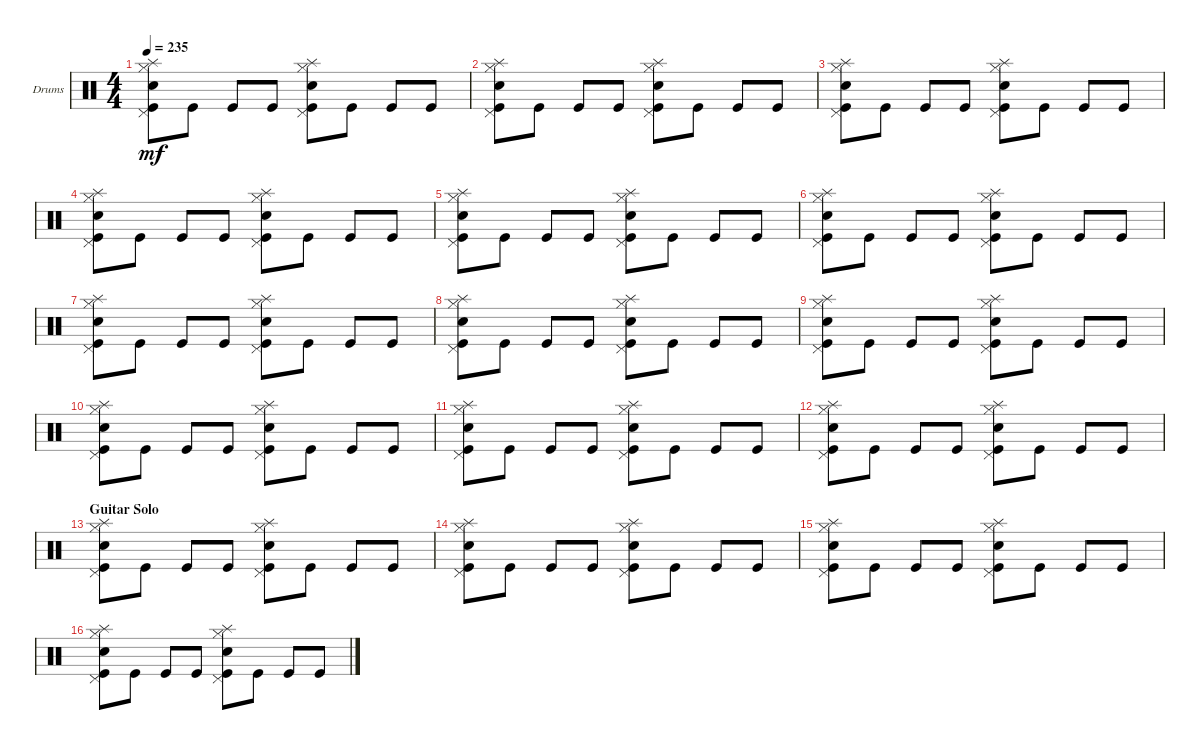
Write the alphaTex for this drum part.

\defaultSystemsLayout 4
\bracketExtendMode groupsimilarinstruments
\firstSystemTrackNameOrientation horizontal
\otherSystemsTrackNameOrientation horizontal
\track ("Drumkit" "Drums") {instrument percussion}
\staff {score}
\articulation defaults
\ts (4 4)
\tempo 235
\clef neutral
\scale
0.333333
\ks c
("Kick (hit)" "Snare (hit) 2" "Pedal Hi-Hat (hit)" "Hi-Hat (closed)" "Splash (hit)").8{dy mf} "Kick (hit)".8 "Kick (hit)".8 "Kick (hit)".8 ("Kick (hit)" "Pedal Hi-Hat (hit)" "Snare (hit) 2" "Hi-Hat (closed)" "Splash (hit)").8 "Kick (hit)".8 "Kick (hit)".8 "Kick (hit)".8 |
\scale
0.333333 ("Kick (hit)" "Snare (hit) 2" "Pedal Hi-Hat (hit)" "Hi-Hat (closed)" "Splash (hit)").8 "Kick (hit)".8 "Kick (hit)".8 "Kick (hit)".8 ("Kick (hit)" "Pedal Hi-Hat (hit)" "Snare (hit) 2" "Hi-Hat (closed)" "Splash (hit)").8 "Kick (hit)".8 "Kick (hit)".8 "Kick (hit)".8 |
\scale
0.333333 ("Kick (hit)" "Snare (hit) 2" "Pedal Hi-Hat (hit)" "Hi-Hat (closed)" "Splash (hit)").8 "Kick (hit)".8 "Kick (hit)".8 "Kick (hit)".8 ("Kick (hit)" "Pedal Hi-Hat (hit)" "Snare (hit) 2" "Hi-Hat (closed)" "Splash (hit)").8 "Kick (hit)".8 "Kick (hit)".8 "Kick (hit)".8 |
\scale
0.333333 ("Kick (hit)" "Snare (hit) 2" "Pedal Hi-Hat (hit)" "Hi-Hat (closed)" "Splash (hit)").8 "Kick (hit)".8 "Kick (hit)".8 "Kick (hit)".8 ("Kick (hit)" "Pedal Hi-Hat (hit)" "Snare (hit) 2" "Hi-Hat (closed)" "Splash (hit)").8 "Kick (hit)".8 "Kick (hit)".8 "Kick (hit)".8 |
\scale
0.333333 ("Kick (hit)" "Snare (hit) 2" "Pedal Hi-Hat (hit)" "Hi-Hat (closed)" "Splash (hit)").8 "Kick (hit)".8 "Kick (hit)".8 "Kick (hit)".8 ("Kick (hit)" "Pedal Hi-Hat (hit)" "Snare (hit) 2" "Hi-Hat (closed)" "Splash (hit)").8 "Kick (hit)".8 "Kick (hit)".8 "Kick (hit)".8 |
\scale
0.333333 ("Kick (hit)" "Snare (hit) 2" "Pedal Hi-Hat (hit)" "Hi-Hat (closed)" "Splash (hit)").8 "Kick (hit)".8 "Kick (hit)".8 "Kick (hit)".8 ("Kick (hit)" "Pedal Hi-Hat (hit)" "Snare (hit) 2" "Hi-Hat (closed)" "Splash (hit)").8 "Kick (hit)".8 "Kick (hit)".8 "Kick (hit)".8 |
\scale
0.333333 ("Kick (hit)" "Snare (hit) 2" "Pedal Hi-Hat (hit)" "Hi-Hat (closed)" "Splash (hit)").8 "Kick (hit)".8 "Kick (hit)".8 "Kick (hit)".8 ("Kick (hit)" "Pedal Hi-Hat (hit)" "Snare (hit) 2" "Hi-Hat (closed)" "Splash (hit)").8 "Kick (hit)".8 "Kick (hit)".8 "Kick (hit)".8 |
\scale
0.333333 ("Kick (hit)" "Snare (hit) 2" "Pedal Hi-Hat (hit)" "Hi-Hat (closed)" "Splash (hit)").8 "Kick (hit)".8 "Kick (hit)".8 "Kick (hit)".8 ("Kick (hit)" "Pedal Hi-Hat (hit)" "Snare (hit) 2" "Hi-Hat (closed)" "Splash (hit)").8 "Kick (hit)".8 "Kick (hit)".8 "Kick (hit)".8 |
\scale
0.333333 ("Kick (hit)" "Snare (hit) 2" "Pedal Hi-Hat (hit)" "Hi-Hat (closed)" "Splash (hit)").8 "Kick (hit)".8 "Kick (hit)".8 "Kick (hit)".8 ("Kick (hit)" "Pedal Hi-Hat (hit)" "Snare (hit) 2" "Hi-Hat (closed)" "Splash (hit)").8 "Kick (hit)".8 "Kick (hit)".8 "Kick (hit)".8 |
\scale
0.333333 ("Kick (hit)" "Snare (hit) 2" "Pedal Hi-Hat (hit)" "Hi-Hat (closed)" "Splash (hit)").8 "Kick (hit)".8 "Kick (hit)".8 "Kick (hit)".8 ("Kick (hit)" "Pedal Hi-Hat (hit)" "Snare (hit) 2" "Hi-Hat (closed)" "Splash (hit)").8 "Kick (hit)".8 "Kick (hit)".8 "Kick (hit)".8 |
\scale
0.333333 ("Kick (hit)" "Snare (hit) 2" "Pedal Hi-Hat (hit)" "Hi-Hat (closed)" "Splash (hit)").8 "Kick (hit)".8 "Kick (hit)".8 "Kick (hit)".8 ("Kick (hit)" "Pedal Hi-Hat (hit)" "Snare (hit) 2" "Hi-Hat (closed)" "Splash (hit)").8 "Kick (hit)".8 "Kick (hit)".8 "Kick (hit)".8 |
\scale
0.333333 ("Kick (hit)" "Snare (hit) 2" "Pedal Hi-Hat (hit)" "Hi-Hat (closed)" "Splash (hit)").8 "Kick (hit)".8 "Kick (hit)".8 "Kick (hit)".8 ("Kick (hit)" "Pedal Hi-Hat (hit)" "Snare (hit) 2" "Hi-Hat (closed)" "Splash (hit)").8 "Kick (hit)".8 "Kick (hit)".8 "Kick (hit)".8 |
\section ("" "Guitar Solo")
\scale
0.333333 ("Kick (hit)" "Snare (hit) 2" "Pedal Hi-Hat (hit)" "Hi-Hat (closed)" "Splash (hit)").8 "Kick (hit)".8 "Kick (hit)".8 "Kick (hit)".8 ("Kick (hit)" "Pedal Hi-Hat (hit)" "Snare (hit) 2" "Hi-Hat (closed)" "Splash (hit)").8 "Kick (hit)".8 "Kick (hit)".8 "Kick (hit)".8 |
\scale
0.333333 ("Kick (hit)" "Snare (hit) 2" "Pedal Hi-Hat (hit)" "Hi-Hat (closed)" "Splash (hit)").8 "Kick (hit)".8 "Kick (hit)".8 "Kick (hit)".8 ("Kick (hit)" "Pedal Hi-Hat (hit)" "Snare (hit) 2" "Hi-Hat (closed)" "Splash (hit)").8 "Kick (hit)".8 "Kick (hit)".8 "Kick (hit)".8 |
\scale
0.333333 ("Kick (hit)" "Snare (hit) 2" "Pedal Hi-Hat (hit)" "Hi-Hat (closed)" "Splash (hit)").8 "Kick (hit)".8 "Kick (hit)".8 "Kick (hit)".8 ("Kick (hit)" "Pedal Hi-Hat (hit)" "Snare (hit) 2" "Hi-Hat (closed)" "Splash (hit)").8 "Kick (hit)".8 "Kick (hit)".8 "Kick (hit)".8 |
\scale
0.333333 ("Kick (hit)" "Snare (hit) 2" "Pedal Hi-Hat (hit)" "Hi-Hat (closed)" "Splash (hit)").8 "Kick (hit)".8 "Kick (hit)".8 "Kick (hit)".8 ("Kick (hit)" "Pedal Hi-Hat (hit)" "Snare (hit) 2" "Hi-Hat (closed)" "Splash (hit)").8 "Kick (hit)".8 "Kick (hit)".8 "Kick (hit)".8
